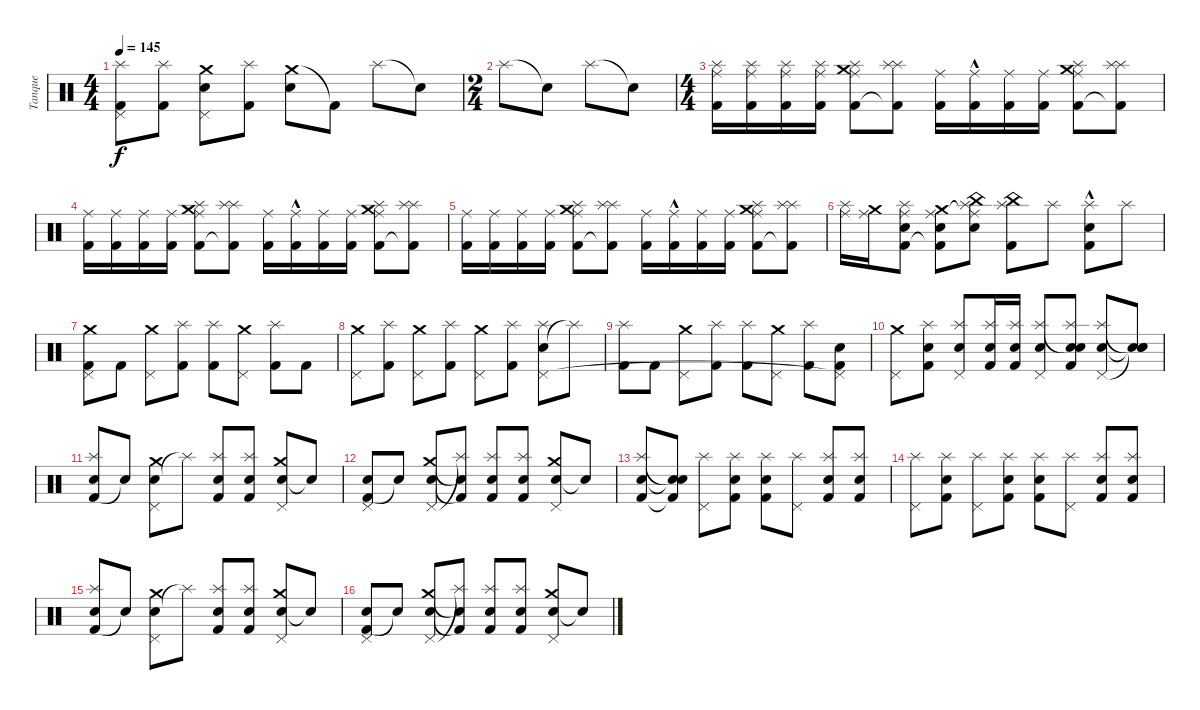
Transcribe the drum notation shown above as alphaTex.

\track ("Tanque" "Tanque") {instrument percussion}
\staff {score}
\articulation defaults
\ts (4 4)
\tempo 145
\clef neutral
\ks c
("Kick (hit) 2" "Pedal Hi-Hat (hit)" "Splash (hit)").8{dy f} ("Kick (hit) 2" "Splash (hit)").8 ("Pedal Hi-Hat (hit)" "Crash medium (hit)" "Snare (hit) 2").8 ("Kick (hit) 2" "Splash (hit)").8 ("Crash medium (hit)" "Snare (hit) 2").8 "Kick (hit) 2"{t}.8 "Splash (hit)".8 "Snare (hit)"{t}.8 |
\ts (2 4)
"Splash (hit)".8 "Snare (hit)"{t}.8 "Splash (hit)".8 "Snare (hit)"{t}.8 |
\ts (4 4)
("Kick (hit) 2" "Splash (hit)" "Ride (middle)").16 ("Kick (hit) 2" "Splash (hit)" "Ride (middle)").16 ("Kick (hit) 2" "Splash (hit)" "Ride (middle)").16 ("Kick (hit) 2" "Splash (hit)" "Ride (middle)").16 ("Kick (hit) 2" "Splash (hit)" "Crash medium (hit)" "Ride (middle)").8 ("Kick (hit) 2"{t} "Splash (hit)" "Splash (hit)").8 ("Kick (hit) 2" "Ride (middle)").16 ("Kick (hit) 2"{hac} "Ride (middle)").16 ("Kick (hit) 2" "Ride (middle)").16 ("Kick (hit) 2" "Ride (middle)").16 ("Kick (hit) 2" "Splash (hit)" "Crash medium (hit)" "Ride (middle)").8 ("Kick (hit) 2"{t} "Splash (hit)" "Splash (hit)").8 |
("Kick (hit) 2" "Ride (middle)").16 ("Kick (hit) 2" "Ride (middle)").16 ("Kick (hit) 2" "Ride (middle)").16 ("Kick (hit) 2" "Ride (middle)").16 ("Kick (hit) 2" "Splash (hit)" "Crash medium (hit)" "Ride (middle)").8 ("Kick (hit) 2"{t} "Splash (hit)" "Splash (hit)").8 ("Kick (hit) 2" "Ride (middle)").16 ("Kick (hit) 2"{hac} "Ride (middle)").16 ("Kick (hit) 2" "Ride (middle)").16 ("Kick (hit) 2" "Ride (middle)").16 ("Kick (hit) 2" "Splash (hit)" "Crash medium (hit)" "Ride (middle)").8 ("Kick (hit) 2"{t} "Splash (hit)" "Splash (hit)").8 |
("Kick (hit) 2" "Ride (middle)").16 ("Kick (hit) 2" "Ride (middle)").16 ("Kick (hit) 2" "Ride (middle)").16 ("Kick (hit) 2" "Ride (middle)").16 ("Kick (hit) 2" "Splash (hit)" "Crash medium (hit)" "Ride (middle)").8 ("Kick (hit) 2"{t} "Splash (hit)" "Splash (hit)").8 ("Kick (hit) 2" "Ride (middle)").16 ("Kick (hit) 2"{hac} "Ride (middle)").16 ("Kick (hit) 2" "Ride (middle)").16 ("Kick (hit) 2" "Ride (middle)").16 ("Kick (hit) 2" "Splash (hit)" "Crash medium (hit)" "Ride (middle)").8 ("Kick (hit) 2"{t} "Splash (hit)" "Splash (hit)").8 |
("Splash (hit)" "Ride (middle)").16 ("Crash medium (hit)" "Ride (middle)").16 ("Kick (hit) 2" "Splash (hit)" "Snare (hit) 2" "Ride (middle)").8 ("Kick (hit) 2"{t} "Snare (hit) 2" "Crash medium (hit)" "Ride (middle)").8 ("Snare (hit) 2" "Splash (hit)" "China (hit)" "Ride (middle)"{t}).8 ("Kick (hit) 2" "Splash (hit)" "China (hit)").8 "Splash (hit)".8 ("Kick (hit) 2"{hac} "Splash (hit)" "Snare (hit) 2").8 "Splash (hit)".8 |
("Kick (hit) 2" "Crash medium (hit)" "Pedal Hi-Hat (hit)").8 "Kick (hit) 2".8 ("Crash medium (hit)" "Pedal Hi-Hat (hit)").8 ("Kick (hit) 2" "Splash (hit)").8 ("Kick (hit) 2" "Splash (hit)").8 ("Crash medium (hit)" "Pedal Hi-Hat (hit)").8 ("Kick (hit) 2" "Splash (hit)").8 "Kick (hit) 2".8 |
("Crash medium (hit)" "Pedal Hi-Hat (hit)").8 ("Kick (hit) 2" "Splash (hit)").8 ("Crash medium (hit)" "Pedal Hi-Hat (hit)").8 ("Kick (hit) 2" "Splash (hit)").8 ("Crash medium (hit)" "Pedal Hi-Hat (hit)").8 ("Kick (hit) 2" "Splash (hit)").8 ("Snare (hit) 2" "Splash (hit)" "Pedal Hi-Hat (hit)").8 "Splash (hit)"{t}.8 |
("Kick (hit) 2" "Splash (hit)").8 "Kick (hit) 2".8 ("Crash medium (hit)" "Pedal Hi-Hat (hit)").8 ("Kick (hit) 2" "Splash (hit)").8 ("Kick (hit) 2" "Splash (hit)").8 ("Crash medium (hit)" "Pedal Hi-Hat (hit)").8 ("Kick (hit) 2" "Splash (hit)").8 ("Kick (hit) 2" "Snare (hit) 2" "Pedal Hi-Hat (hit)"{t}).8 |
("Crash medium (hit)" "Pedal Hi-Hat (hit)").8 ("Kick (hit) 2" "Electric Snare (hit)" "Splash (hit)").8 ("Snare (hit) 2" "Splash (hit)" "Pedal Hi-Hat (hit)").8 ("Kick (hit) 2" "Electric Snare (hit)" "Splash (hit)").16 ("Kick (hit) 2" "Electric Snare (hit)" "Splash (hit)").16 ("Snare (hit) 2" "Splash (hit)" "Pedal Hi-Hat (hit)").8 ("Kick (hit) 2" "Snare (hit)"{t} "Electric Snare (hit)" "Splash (hit)").8 ("Snare (hit) 2" "Splash (hit)" "Pedal Hi-Hat (hit)").8 ("Snare (hit)"{t} "Snare (hit)"{t} "Snare (hit)"{t}).8 |
("Kick (hit) 2" "Electric Snare (hit)" "Splash (hit)").8 "Snare (hit)"{t}.8 ("Snare (hit) 2" "Crash medium (hit)" "Pedal Hi-Hat (hit)").8 "Splash (hit)"{t}.8 ("Kick (hit) 2" "Electric Snare (hit)" "Splash (hit)").8 ("Kick (hit) 2" "Electric Snare (hit)" "Splash (hit)").8 ("Snare (hit) 2" "Crash medium (hit)" "Pedal Hi-Hat (hit)").8 "Snare (hit)"{t}.8 |
("Kick (hit) 2" "Electric Snare (hit)" "Pedal Hi-Hat (hit)").8 "Snare (hit)"{t}.8 ("Snare (hit) 2" "Crash medium (hit)" "Pedal Hi-Hat (hit)").8 ("Kick (hit) 2"{t} "Electric Snare (hit)"{t} "Splash (hit)"{t}).8 ("Kick (hit) 2" "Electric Snare (hit)" "Splash (hit)").8 ("Kick (hit) 2" "Electric Snare (hit)" "Splash (hit)").8 ("Snare (hit) 2" "Crash medium (hit)" "Pedal Hi-Hat (hit)").8 "Snare (hit)"{t}.8 |
("Kick (hit) 2" "Snare (hit) 2" "Splash (hit)").8 ("Kick (hit) 2"{t} "Snare (hit)"{t} "Snare (hit)"{t}).8 ("Pedal Hi-Hat (hit)" "Splash (hit)").8 ("Kick (hit) 2" "Snare (hit) 2" "Splash (hit)").8 ("Kick (hit) 2" "Snare (hit) 2" "Splash (hit)").8 ("Pedal Hi-Hat (hit)" "Splash (hit)").8 ("Kick (hit) 2" "Snare (hit) 2" "Splash (hit)").8 ("Kick (hit) 2" "Snare (hit) 2" "Splash (hit)").8 |
("Pedal Hi-Hat (hit)" "Splash (hit)").8 ("Kick (hit) 2" "Snare (hit) 2" "Splash (hit)").8 ("Pedal Hi-Hat (hit)" "Splash (hit)").8 ("Kick (hit) 2" "Snare (hit) 2" "Splash (hit)").8 ("Kick (hit) 2" "Snare (hit) 2" "Splash (hit)").8 ("Pedal Hi-Hat (hit)" "Splash (hit)").8 ("Kick (hit) 2" "Snare (hit) 2" "Splash (hit)").8 ("Kick (hit) 2" "Snare (hit) 2" "Splash (hit)").8 |
("Kick (hit) 2" "Electric Snare (hit)" "Splash (hit)").8 "Snare (hit)"{t}.8 ("Snare (hit) 2" "Crash medium (hit)" "Pedal Hi-Hat (hit)").8 "Splash (hit)"{t}.8 ("Kick (hit) 2" "Electric Snare (hit)" "Splash (hit)").8 ("Kick (hit) 2" "Electric Snare (hit)" "Splash (hit)").8 ("Snare (hit) 2" "Crash medium (hit)" "Pedal Hi-Hat (hit)").8 "Snare (hit)"{t}.8 |
("Kick (hit) 2" "Electric Snare (hit)" "Pedal Hi-Hat (hit)").8 "Snare (hit)"{t}.8 ("Snare (hit) 2" "Crash medium (hit)" "Pedal Hi-Hat (hit)").8 ("Kick (hit) 2"{t} "Electric Snare (hit)"{t} "Splash (hit)"{t}).8 ("Kick (hit) 2" "Electric Snare (hit)" "Splash (hit)").8 ("Kick (hit) 2" "Electric Snare (hit)" "Splash (hit)").8 ("Snare (hit) 2" "Crash medium (hit)" "Pedal Hi-Hat (hit)").8 "Snare (hit)"{t}.8
